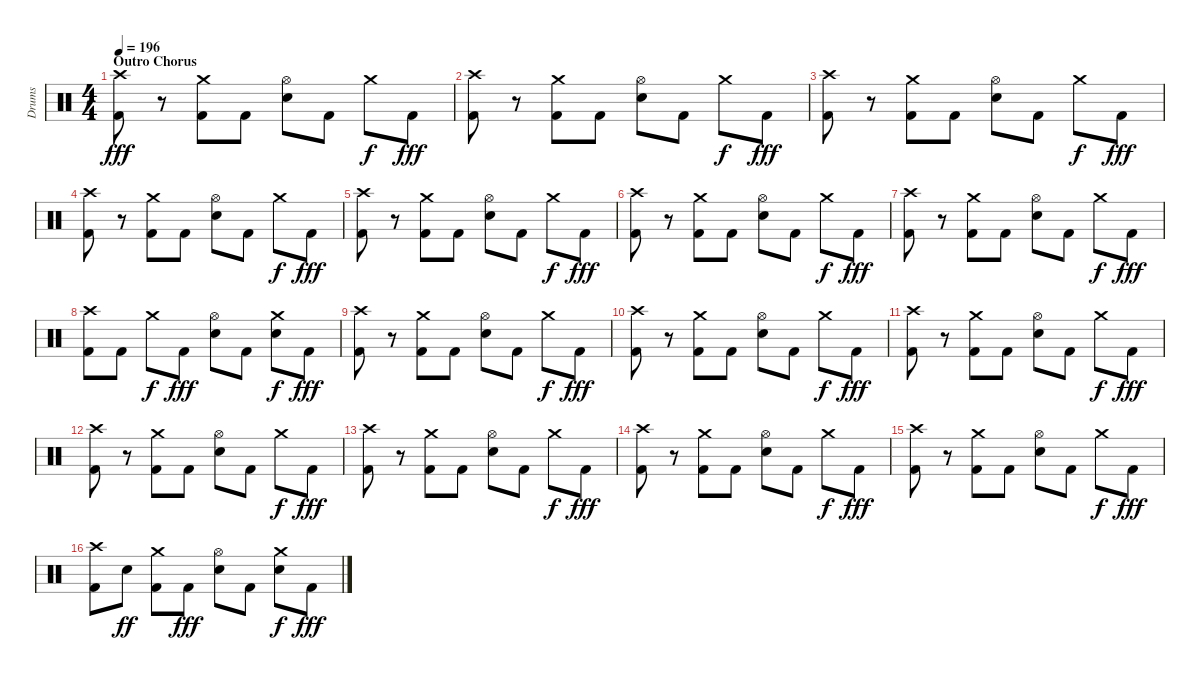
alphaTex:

\track ("Drums" "Drums") {instrument percussion}
\staff {score}
\articulation defaults
\ts (4 4)
\section ("" "Outro Chorus")
\tempo 196
\clef neutral
\ks c
("Crash high (hit)" "Kick (hit) 2").8{dy fff} r.8 ("Crash medium (hit)" "Kick (hit) 2").8 "Kick (hit) 2".8 ("Hi-Hat (open)" "Electric Snare (hit)").8 "Kick (hit) 2".8 "Crash medium (hit)".8{dy f} "Kick (hit) 2".8{dy fff} |
("Crash high (hit)" "Kick (hit) 2").8 r.8 ("Crash medium (hit)" "Kick (hit) 2").8 "Kick (hit) 2".8 ("Hi-Hat (open)" "Electric Snare (hit)").8 "Kick (hit) 2".8 "Crash medium (hit)".8{dy f} "Kick (hit) 2".8{dy fff} |
("Crash high (hit)" "Kick (hit) 2").8 r.8 ("Crash medium (hit)" "Kick (hit) 2").8 "Kick (hit) 2".8 ("Hi-Hat (open)" "Electric Snare (hit)").8 "Kick (hit) 2".8 "Crash medium (hit)".8{dy f} "Kick (hit) 2".8{dy fff} |
("Crash high (hit)" "Kick (hit) 2").8 r.8 ("Crash medium (hit)" "Kick (hit) 2").8 "Kick (hit) 2".8 ("Hi-Hat (open)" "Electric Snare (hit)").8 "Kick (hit) 2".8 "Crash medium (hit)".8{dy f} "Kick (hit) 2".8{dy fff} |
("Crash high (hit)" "Kick (hit) 2").8 r.8 ("Crash medium (hit)" "Kick (hit) 2").8 "Kick (hit) 2".8 ("Hi-Hat (open)" "Electric Snare (hit)").8 "Kick (hit) 2".8 "Crash medium (hit)".8{dy f} "Kick (hit) 2".8{dy fff} |
("Crash high (hit)" "Kick (hit) 2").8 r.8 ("Crash medium (hit)" "Kick (hit) 2").8 "Kick (hit) 2".8 ("Hi-Hat (open)" "Electric Snare (hit)").8 "Kick (hit) 2".8 "Crash medium (hit)".8{dy f} "Kick (hit) 2".8{dy fff} |
("Crash high (hit)" "Kick (hit) 2").8 r.8 ("Crash medium (hit)" "Kick (hit) 2").8 "Kick (hit) 2".8 ("Hi-Hat (open)" "Electric Snare (hit)").8 "Kick (hit) 2".8 "Crash medium (hit)".8{dy f} "Kick (hit) 2".8{dy fff} |
("Crash high (hit)" "Kick (hit) 2").8 "Kick (hit) 2".8 "Crash medium (hit)".8{dy f} "Kick (hit) 2".8{dy fff} ("Hi-Hat (open)" "Electric Snare (hit)").8 "Kick (hit) 2".8 ("Crash medium (hit)" "Electric Snare (hit)").8{dy f} "Kick (hit) 2".8{dy fff} |
("Crash high (hit)" "Kick (hit) 2").8 r.8 ("Crash medium (hit)" "Kick (hit) 2").8 "Kick (hit) 2".8 ("Hi-Hat (open)" "Electric Snare (hit)").8 "Kick (hit) 2".8 "Crash medium (hit)".8{dy f} "Kick (hit) 2".8{dy fff} |
("Crash high (hit)" "Kick (hit) 2").8 r.8 ("Crash medium (hit)" "Kick (hit) 2").8 "Kick (hit) 2".8 ("Hi-Hat (open)" "Electric Snare (hit)").8 "Kick (hit) 2".8 "Crash medium (hit)".8{dy f} "Kick (hit) 2".8{dy fff} |
("Crash high (hit)" "Kick (hit) 2").8 r.8 ("Crash medium (hit)" "Kick (hit) 2").8 "Kick (hit) 2".8 ("Hi-Hat (open)" "Electric Snare (hit)").8 "Kick (hit) 2".8 "Crash medium (hit)".8{dy f} "Kick (hit) 2".8{dy fff} |
("Crash high (hit)" "Kick (hit) 2").8 r.8 ("Crash medium (hit)" "Kick (hit) 2").8 "Kick (hit) 2".8 ("Hi-Hat (open)" "Electric Snare (hit)").8 "Kick (hit) 2".8 "Crash medium (hit)".8{dy f} "Kick (hit) 2".8{dy fff} |
("Crash high (hit)" "Kick (hit) 2").8 r.8 ("Crash medium (hit)" "Kick (hit) 2").8 "Kick (hit) 2".8 ("Hi-Hat (open)" "Electric Snare (hit)").8 "Kick (hit) 2".8 "Crash medium (hit)".8{dy f} "Kick (hit) 2".8{dy fff} |
("Crash high (hit)" "Kick (hit) 2").8 r.8 ("Crash medium (hit)" "Kick (hit) 2").8 "Kick (hit) 2".8 ("Hi-Hat (open)" "Electric Snare (hit)").8 "Kick (hit) 2".8 "Crash medium (hit)".8{dy f} "Kick (hit) 2".8{dy fff} |
("Crash high (hit)" "Kick (hit) 2").8 r.8 ("Crash medium (hit)" "Kick (hit) 2").8 "Kick (hit) 2".8 ("Hi-Hat (open)" "Electric Snare (hit)").8 "Kick (hit) 2".8 "Crash medium (hit)".8{dy f} "Kick (hit) 2".8{dy fff} |
("Crash high (hit)" "Kick (hit) 2").8 "Electric Snare (hit)".8{dy ff} ("Crash medium (hit)" "Kick (hit) 2").8 "Kick (hit) 2".8{dy fff} ("Hi-Hat (open)" "Electric Snare (hit)").8 "Kick (hit) 2".8 ("Crash medium (hit)" "Electric Snare (hit)").8{dy f} "Kick (hit) 2".8{dy fff}
